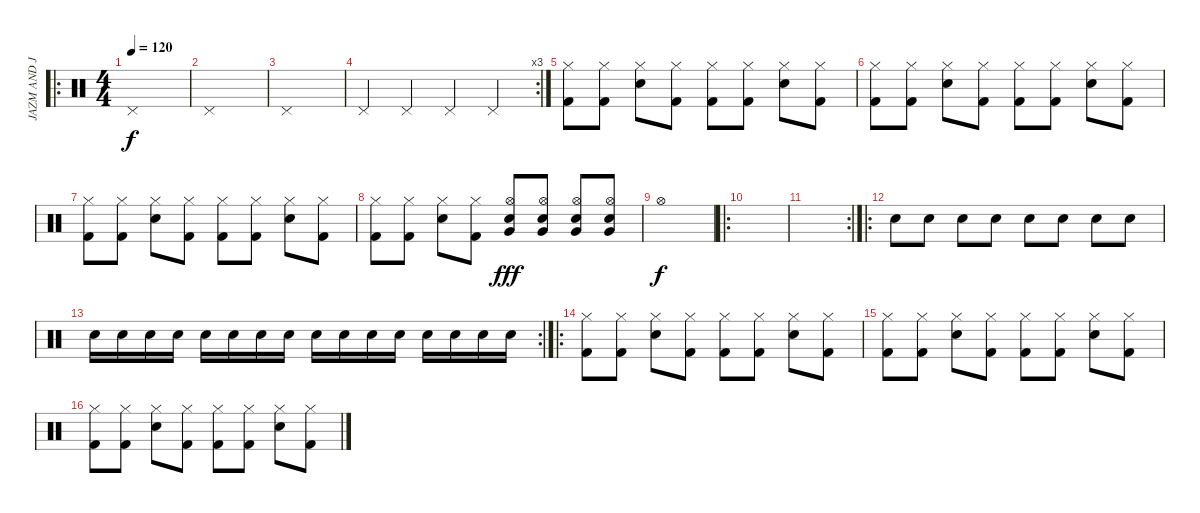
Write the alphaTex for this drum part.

\track ("JAZM AND JOKER" "JAZM AND J") {instrument percussion}
\staff {score}
\articulation defaults
\ro
\ts (4 4)
\tempo 120
\clef neutral
\ks c "Pedal Hi-Hat (hit)".1{dy f}
|
"Pedal Hi-Hat (hit)".1 |
"Pedal Hi-Hat (hit)".1 |
\rc 3 "Pedal Hi-Hat (hit)".4 "Pedal Hi-Hat (hit)".4 "Pedal Hi-Hat (hit)".4 "Pedal Hi-Hat (hit)".4
|
("Hi-Hat (closed)" "Kick (hit) 2").8 ("Hi-Hat (closed)" "Kick (hit) 2").8 ("Hi-Hat (closed)" "Snare (hit) 2").8 ("Hi-Hat (closed)" "Kick (hit) 2").8 ("Hi-Hat (closed)" "Kick (hit) 2").8 ("Hi-Hat (closed)" "Kick (hit) 2").8 ("Hi-Hat (closed)" "Snare (hit) 2").8 ("Hi-Hat (closed)" "Kick (hit) 2").8 |
("Hi-Hat (closed)" "Kick (hit) 2").8 ("Hi-Hat (closed)" "Kick (hit) 2").8 ("Hi-Hat (closed)" "Snare (hit) 2").8 ("Hi-Hat (closed)" "Kick (hit) 2").8 ("Hi-Hat (closed)" "Kick (hit) 2").8 ("Hi-Hat (closed)" "Kick (hit) 2").8 ("Hi-Hat (closed)" "Snare (hit) 2").8 ("Hi-Hat (closed)" "Kick (hit) 2").8 |
("Hi-Hat (closed)" "Kick (hit) 2").8 ("Hi-Hat (closed)" "Kick (hit) 2").8 ("Hi-Hat (closed)" "Snare (hit) 2").8 ("Hi-Hat (closed)" "Kick (hit) 2").8 ("Hi-Hat (closed)" "Kick (hit) 2").8 ("Hi-Hat (closed)" "Kick (hit) 2").8 ("Hi-Hat (closed)" "Snare (hit) 2").8 ("Hi-Hat (closed)" "Kick (hit) 2").8 |
("Hi-Hat (closed)" "Kick (hit) 2").8 ("Hi-Hat (closed)" "Kick (hit) 2").8 ("Hi-Hat (closed)" "Snare (hit) 2").8 ("Hi-Hat (closed)" "Kick (hit) 2").8 ("Hi-Hat (open)" "Very Low Tom (hit)" "Snare (hit) 2").8{dy fff} ("Hi-Hat (open)" "Very Low Tom (hit)" "Snare (hit) 2").8 ("Hi-Hat (open)" "Very Low Tom (hit)" "Snare (hit) 2").8 ("Hi-Hat (open)" "Very Low Tom (hit)" "Snare (hit) 2").8 |
"Hi-Hat (open)".1{dy f} |
\ro
|
\rc 2
|
\ro "Electric Snare (hit)".8 "Electric Snare (hit)".8 "Electric Snare (hit)".8 "Electric Snare (hit)".8 "Electric Snare (hit)".8 "Electric Snare (hit)".8 "Electric Snare (hit)".8 "Electric Snare (hit)".8
|
\rc 2 "Electric Snare (hit)".16 "Electric Snare (hit)".16 "Electric Snare (hit)".16 "Electric Snare (hit)".16 "Electric Snare (hit)".16 "Electric Snare (hit)".16 "Electric Snare (hit)".16 "Electric Snare (hit)".16 "Electric Snare (hit)".16 "Electric Snare (hit)".16 "Electric Snare (hit)".16 "Electric Snare (hit)".16 "Electric Snare (hit)".16 "Electric Snare (hit)".16 "Electric Snare (hit)".16 "Electric Snare (hit)".16
|
\ro
("Hi-Hat (closed)" "Kick (hit) 2").8 ("Hi-Hat (closed)" "Kick (hit) 2").8 ("Hi-Hat (closed)" "Snare (hit) 2").8 ("Hi-Hat (closed)" "Kick (hit) 2").8 ("Hi-Hat (closed)" "Kick (hit) 2").8 ("Hi-Hat (closed)" "Kick (hit) 2").8 ("Hi-Hat (closed)" "Snare (hit) 2").8 ("Hi-Hat (closed)" "Kick (hit) 2").8 |
("Hi-Hat (closed)" "Kick (hit) 2").8 ("Hi-Hat (closed)" "Kick (hit) 2").8 ("Hi-Hat (closed)" "Snare (hit) 2").8 ("Hi-Hat (closed)" "Kick (hit) 2").8 ("Hi-Hat (closed)" "Kick (hit) 2").8 ("Hi-Hat (closed)" "Kick (hit) 2").8 ("Hi-Hat (closed)" "Snare (hit) 2").8 ("Hi-Hat (closed)" "Kick (hit) 2").8 |
("Hi-Hat (closed)" "Kick (hit) 2").8 ("Hi-Hat (closed)" "Kick (hit) 2").8 ("Hi-Hat (closed)" "Snare (hit) 2").8 ("Hi-Hat (closed)" "Kick (hit) 2").8 ("Hi-Hat (closed)" "Kick (hit) 2").8 ("Hi-Hat (closed)" "Kick (hit) 2").8 ("Hi-Hat (closed)" "Snare (hit) 2").8 ("Hi-Hat (closed)" "Kick (hit) 2").8
